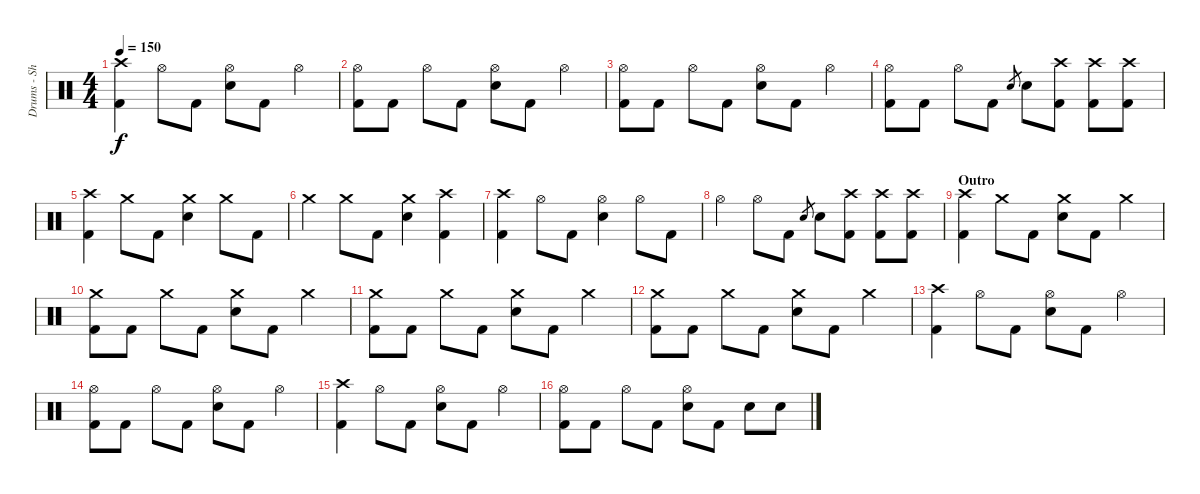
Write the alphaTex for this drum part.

\track ("Drums - Shelton" "Drums - Sh") {instrument percussion}
\staff {score}
\articulation defaults
\ts (4 4)
\tempo 150
\clef neutral
\ks c
("Crash high (hit)" "Kick (hit) 2").4{dy f} "Hi-Hat (open)".8 "Kick (hit) 2".8 ("Hi-Hat (open)" "Electric Snare (hit)").8 "Kick (hit) 2".8 "Hi-Hat (open)".4 |
("Hi-Hat (open)" "Kick (hit) 2").8 "Kick (hit) 2".8 "Hi-Hat (open)".8 "Kick (hit) 2".8 ("Hi-Hat (open)" "Electric Snare (hit)").8 "Kick (hit) 2".8 "Hi-Hat (open)".4 |
("Hi-Hat (open)" "Kick (hit) 2").8 "Kick (hit) 2".8 "Hi-Hat (open)".8 "Kick (hit) 2".8 ("Hi-Hat (open)" "Electric Snare (hit)").8 "Kick (hit) 2".8 "Hi-Hat (open)".4 |
("Hi-Hat (open)" "Kick (hit) 2").8 "Kick (hit) 2".8 "Hi-Hat (open)".8 "Kick (hit) 2".8 "Electric Snare (hit)".8{gr} "Electric Snare (hit)".8 ("Crash high (hit)" "Kick (hit) 2").8 ("Crash high (hit)" "Kick (hit) 2").8 ("Crash high (hit)" "Kick (hit) 2").8 |
("Crash high (hit)" "Kick (hit) 2").4 "Crash medium (hit)".8 "Kick (hit) 2".8 ("Crash medium (hit)" "Electric Snare (hit)").4 "Crash medium (hit)".8 "Kick (hit) 2".8 |
"Crash medium (hit)".4 "Crash medium (hit)".8 "Kick (hit) 2".8 ("Crash medium (hit)" "Electric Snare (hit)").4 ("Crash high (hit)" "Kick (hit) 2").4 |
("Crash high (hit)" "Kick (hit) 2").4 "Hi-Hat (open)".8 "Kick (hit) 2".8 ("Hi-Hat (open)" "Electric Snare (hit)").4 "Hi-Hat (open)".8 "Kick (hit) 2".8 |
"Hi-Hat (open)".4 "Hi-Hat (open)".8 "Kick (hit) 2".8 "Electric Snare (hit)".8{gr} "Electric Snare (hit)".8 ("Crash high (hit)" "Kick (hit) 2").8 ("Crash high (hit)" "Kick (hit) 2").8 ("Crash high (hit)" "Kick (hit) 2").8 |
\section ("" "Outro")
("Crash high (hit)" "Kick (hit) 2").4 "Crash medium (hit)".8 "Kick (hit) 2".8 ("Crash medium (hit)" "Electric Snare (hit)").8 "Kick (hit) 2".8 "Crash medium (hit)".4 |
("Crash medium (hit)" "Kick (hit) 2").8 "Kick (hit) 2".8 "Crash medium (hit)".8 "Kick (hit) 2".8 ("Crash medium (hit)" "Electric Snare (hit)").8 "Kick (hit) 2".8 "Crash medium (hit)".4 |
("Crash medium (hit)" "Kick (hit) 2").8 "Kick (hit) 2".8 "Crash medium (hit)".8 "Kick (hit) 2".8 ("Crash medium (hit)" "Electric Snare (hit)").8 "Kick (hit) 2".8 "Crash medium (hit)".4 |
("Crash medium (hit)" "Kick (hit) 2").8 "Kick (hit) 2".8 "Crash medium (hit)".8 "Kick (hit) 2".8 ("Crash medium (hit)" "Electric Snare (hit)").8 "Kick (hit) 2".8 "Crash medium (hit)".4 |
("Crash high (hit)" "Kick (hit) 2").4 "Hi-Hat (open)".8 "Kick (hit) 2".8 ("Hi-Hat (open)" "Electric Snare (hit)").8 "Kick (hit) 2".8 "Hi-Hat (open)".4 |
("Hi-Hat (open)" "Kick (hit) 2").8 "Kick (hit) 2".8 "Hi-Hat (open)".8 "Kick (hit) 2".8 ("Hi-Hat (open)" "Electric Snare (hit)").8 "Kick (hit) 2".8 "Hi-Hat (open)".4 |
("Crash high (hit)" "Kick (hit) 2").4 "Hi-Hat (open)".8 "Kick (hit) 2".8 ("Hi-Hat (open)" "Electric Snare (hit)").8 "Kick (hit) 2".8 "Hi-Hat (open)".4 |
("Hi-Hat (open)" "Kick (hit) 2").8 "Kick (hit) 2".8 "Hi-Hat (open)".8 "Kick (hit) 2".8 ("Hi-Hat (open)" "Electric Snare (hit)").8 "Kick (hit) 2".8 "Electric Snare (hit)".8 "Electric Snare (hit)".8
